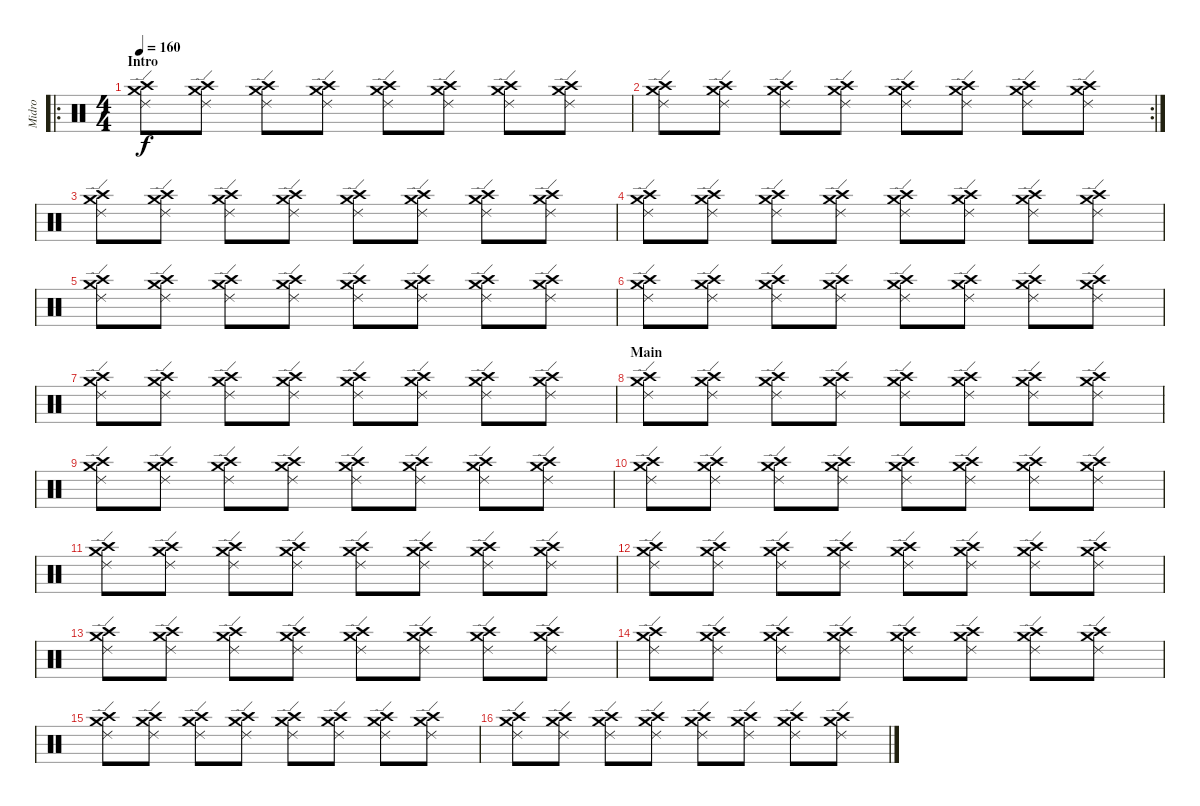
\track ("Midro" "Midro") {instrument percussion}
\staff {score}
\articulation defaults
\ro
\ts (4 4)
\section ("" "Intro")
\tempo 160
\clef neutral
\ks c
("Ride (edge) 2" "Crash medium (hit)" "Crash high (hit)").8{dy f} ("Ride (edge) 2" "Crash medium (hit)" "Crash high (hit)").8 ("Ride (edge) 2" "Crash medium (hit)" "Crash high (hit)").8 ("Ride (edge) 2" "Crash medium (hit)" "Crash high (hit)").8 ("Ride (edge) 2" "Crash medium (hit)" "Crash high (hit)").8 ("Ride (edge) 2" "Crash medium (hit)" "Crash high (hit)").8 ("Ride (edge) 2" "Crash medium (hit)" "Crash high (hit)").8 ("Ride (edge) 2" "Crash medium (hit)" "Crash high (hit)").8 |
\rc 2
("Ride (edge) 2" "Crash medium (hit)" "Crash high (hit)").8 ("Ride (edge) 2" "Crash medium (hit)" "Crash high (hit)").8 ("Ride (edge) 2" "Crash medium (hit)" "Crash high (hit)").8 ("Ride (edge) 2" "Crash medium (hit)" "Crash high (hit)").8 ("Ride (edge) 2" "Crash medium (hit)" "Crash high (hit)").8 ("Ride (edge) 2" "Crash medium (hit)" "Crash high (hit)").8 ("Ride (edge) 2" "Crash medium (hit)" "Crash high (hit)").8 ("Ride (edge) 2" "Crash medium (hit)" "Crash high (hit)").8 |
("Ride (edge) 2" "Crash medium (hit)" "Crash high (hit)").8 ("Ride (edge) 2" "Crash medium (hit)" "Crash high (hit)").8 ("Ride (edge) 2" "Crash medium (hit)" "Crash high (hit)").8 ("Ride (edge) 2" "Crash medium (hit)" "Crash high (hit)").8 ("Ride (edge) 2" "Crash medium (hit)" "Crash high (hit)").8 ("Ride (edge) 2" "Crash medium (hit)" "Crash high (hit)").8 ("Ride (edge) 2" "Crash medium (hit)" "Crash high (hit)").8 ("Ride (edge) 2" "Crash medium (hit)" "Crash high (hit)").8 |
("Ride (edge) 2" "Crash medium (hit)" "Crash high (hit)").8 ("Ride (edge) 2" "Crash medium (hit)" "Crash high (hit)").8 ("Ride (edge) 2" "Crash medium (hit)" "Crash high (hit)").8 ("Ride (edge) 2" "Crash medium (hit)" "Crash high (hit)").8 ("Ride (edge) 2" "Crash medium (hit)" "Crash high (hit)").8 ("Ride (edge) 2" "Crash medium (hit)" "Crash high (hit)").8 ("Ride (edge) 2" "Crash medium (hit)" "Crash high (hit)").8 ("Ride (edge) 2" "Crash medium (hit)" "Crash high (hit)").8 |
("Ride (edge) 2" "Crash medium (hit)" "Crash high (hit)").8 ("Ride (edge) 2" "Crash medium (hit)" "Crash high (hit)").8 ("Ride (edge) 2" "Crash medium (hit)" "Crash high (hit)").8 ("Ride (edge) 2" "Crash medium (hit)" "Crash high (hit)").8 ("Ride (edge) 2" "Crash medium (hit)" "Crash high (hit)").8 ("Ride (edge) 2" "Crash medium (hit)" "Crash high (hit)").8 ("Ride (edge) 2" "Crash medium (hit)" "Crash high (hit)").8 ("Ride (edge) 2" "Crash medium (hit)" "Crash high (hit)").8 |
("Ride (edge) 2" "Crash medium (hit)" "Crash high (hit)").8 ("Ride (edge) 2" "Crash medium (hit)" "Crash high (hit)").8 ("Ride (edge) 2" "Crash medium (hit)" "Crash high (hit)").8 ("Ride (edge) 2" "Crash medium (hit)" "Crash high (hit)").8 ("Ride (edge) 2" "Crash medium (hit)" "Crash high (hit)").8 ("Ride (edge) 2" "Crash medium (hit)" "Crash high (hit)").8 ("Ride (edge) 2" "Crash medium (hit)" "Crash high (hit)").8 ("Ride (edge) 2" "Crash medium (hit)" "Crash high (hit)").8 |
("Ride (edge) 2" "Crash medium (hit)" "Crash high (hit)").8 ("Ride (edge) 2" "Crash medium (hit)" "Crash high (hit)").8 ("Ride (edge) 2" "Crash medium (hit)" "Crash high (hit)").8 ("Ride (edge) 2" "Crash medium (hit)" "Crash high (hit)").8 ("Ride (edge) 2" "Crash medium (hit)" "Crash high (hit)").8 ("Ride (edge) 2" "Crash medium (hit)" "Crash high (hit)").8 ("Ride (edge) 2" "Crash medium (hit)" "Crash high (hit)").8 ("Ride (edge) 2" "Crash medium (hit)" "Crash high (hit)").8 |
\section ("" "Main ")
("Ride (edge) 2" "Crash medium (hit)" "Crash high (hit)").8 ("Ride (edge) 2" "Crash medium (hit)" "Crash high (hit)").8 ("Ride (edge) 2" "Crash medium (hit)" "Crash high (hit)").8 ("Ride (edge) 2" "Crash medium (hit)" "Crash high (hit)").8 ("Ride (edge) 2" "Crash medium (hit)" "Crash high (hit)").8 ("Ride (edge) 2" "Crash medium (hit)" "Crash high (hit)").8 ("Ride (edge) 2" "Crash medium (hit)" "Crash high (hit)").8 ("Ride (edge) 2" "Crash medium (hit)" "Crash high (hit)").8 |
("Ride (edge) 2" "Crash medium (hit)" "Crash high (hit)").8 ("Ride (edge) 2" "Crash medium (hit)" "Crash high (hit)").8 ("Ride (edge) 2" "Crash medium (hit)" "Crash high (hit)").8 ("Ride (edge) 2" "Crash medium (hit)" "Crash high (hit)").8 ("Ride (edge) 2" "Crash medium (hit)" "Crash high (hit)").8 ("Ride (edge) 2" "Crash medium (hit)" "Crash high (hit)").8 ("Ride (edge) 2" "Crash medium (hit)" "Crash high (hit)").8 ("Ride (edge) 2" "Crash medium (hit)" "Crash high (hit)").8 |
("Ride (edge) 2" "Crash medium (hit)" "Crash high (hit)").8 ("Ride (edge) 2" "Crash medium (hit)" "Crash high (hit)").8 ("Ride (edge) 2" "Crash medium (hit)" "Crash high (hit)").8 ("Ride (edge) 2" "Crash medium (hit)" "Crash high (hit)").8 ("Ride (edge) 2" "Crash medium (hit)" "Crash high (hit)").8 ("Ride (edge) 2" "Crash medium (hit)" "Crash high (hit)").8 ("Ride (edge) 2" "Crash medium (hit)" "Crash high (hit)").8 ("Ride (edge) 2" "Crash medium (hit)" "Crash high (hit)").8 |
("Ride (edge) 2" "Crash medium (hit)" "Crash high (hit)").8 ("Ride (edge) 2" "Crash medium (hit)" "Crash high (hit)").8 ("Ride (edge) 2" "Crash medium (hit)" "Crash high (hit)").8 ("Ride (edge) 2" "Crash medium (hit)" "Crash high (hit)").8 ("Ride (edge) 2" "Crash medium (hit)" "Crash high (hit)").8 ("Ride (edge) 2" "Crash medium (hit)" "Crash high (hit)").8 ("Ride (edge) 2" "Crash medium (hit)" "Crash high (hit)").8 ("Ride (edge) 2" "Crash medium (hit)" "Crash high (hit)").8 |
("Ride (edge) 2" "Crash medium (hit)" "Crash high (hit)").8 ("Ride (edge) 2" "Crash medium (hit)" "Crash high (hit)").8 ("Ride (edge) 2" "Crash medium (hit)" "Crash high (hit)").8 ("Ride (edge) 2" "Crash medium (hit)" "Crash high (hit)").8 ("Ride (edge) 2" "Crash medium (hit)" "Crash high (hit)").8 ("Ride (edge) 2" "Crash medium (hit)" "Crash high (hit)").8 ("Ride (edge) 2" "Crash medium (hit)" "Crash high (hit)").8 ("Ride (edge) 2" "Crash medium (hit)" "Crash high (hit)").8 |
("Ride (edge) 2" "Crash medium (hit)" "Crash high (hit)").8 ("Ride (edge) 2" "Crash medium (hit)" "Crash high (hit)").8 ("Ride (edge) 2" "Crash medium (hit)" "Crash high (hit)").8 ("Ride (edge) 2" "Crash medium (hit)" "Crash high (hit)").8 ("Ride (edge) 2" "Crash medium (hit)" "Crash high (hit)").8 ("Ride (edge) 2" "Crash medium (hit)" "Crash high (hit)").8 ("Ride (edge) 2" "Crash medium (hit)" "Crash high (hit)").8 ("Ride (edge) 2" "Crash medium (hit)" "Crash high (hit)").8 |
("Ride (edge) 2" "Crash medium (hit)" "Crash high (hit)").8 ("Ride (edge) 2" "Crash medium (hit)" "Crash high (hit)").8 ("Ride (edge) 2" "Crash medium (hit)" "Crash high (hit)").8 ("Ride (edge) 2" "Crash medium (hit)" "Crash high (hit)").8 ("Ride (edge) 2" "Crash medium (hit)" "Crash high (hit)").8 ("Ride (edge) 2" "Crash medium (hit)" "Crash high (hit)").8 ("Ride (edge) 2" "Crash medium (hit)" "Crash high (hit)").8 ("Ride (edge) 2" "Crash medium (hit)" "Crash high (hit)").8 |
("Ride (edge) 2" "Crash medium (hit)" "Crash high (hit)").8 ("Ride (edge) 2" "Crash medium (hit)" "Crash high (hit)").8 ("Ride (edge) 2" "Crash medium (hit)" "Crash high (hit)").8 ("Ride (edge) 2" "Crash medium (hit)" "Crash high (hit)").8 ("Ride (edge) 2" "Crash medium (hit)" "Crash high (hit)").8 ("Ride (edge) 2" "Crash medium (hit)" "Crash high (hit)").8 ("Ride (edge) 2" "Crash medium (hit)" "Crash high (hit)").8 ("Ride (edge) 2" "Crash medium (hit)" "Crash high (hit)").8 |
("Ride (edge) 2" "Crash medium (hit)" "Crash high (hit)").8 ("Ride (edge) 2" "Crash medium (hit)" "Crash high (hit)").8 ("Ride (edge) 2" "Crash medium (hit)" "Crash high (hit)").8 ("Ride (edge) 2" "Crash medium (hit)" "Crash high (hit)").8 ("Ride (edge) 2" "Crash medium (hit)" "Crash high (hit)").8 ("Ride (edge) 2" "Crash medium (hit)" "Crash high (hit)").8 ("Ride (edge) 2" "Crash medium (hit)" "Crash high (hit)").8 ("Ride (edge) 2" "Crash medium (hit)" "Crash high (hit)").8
